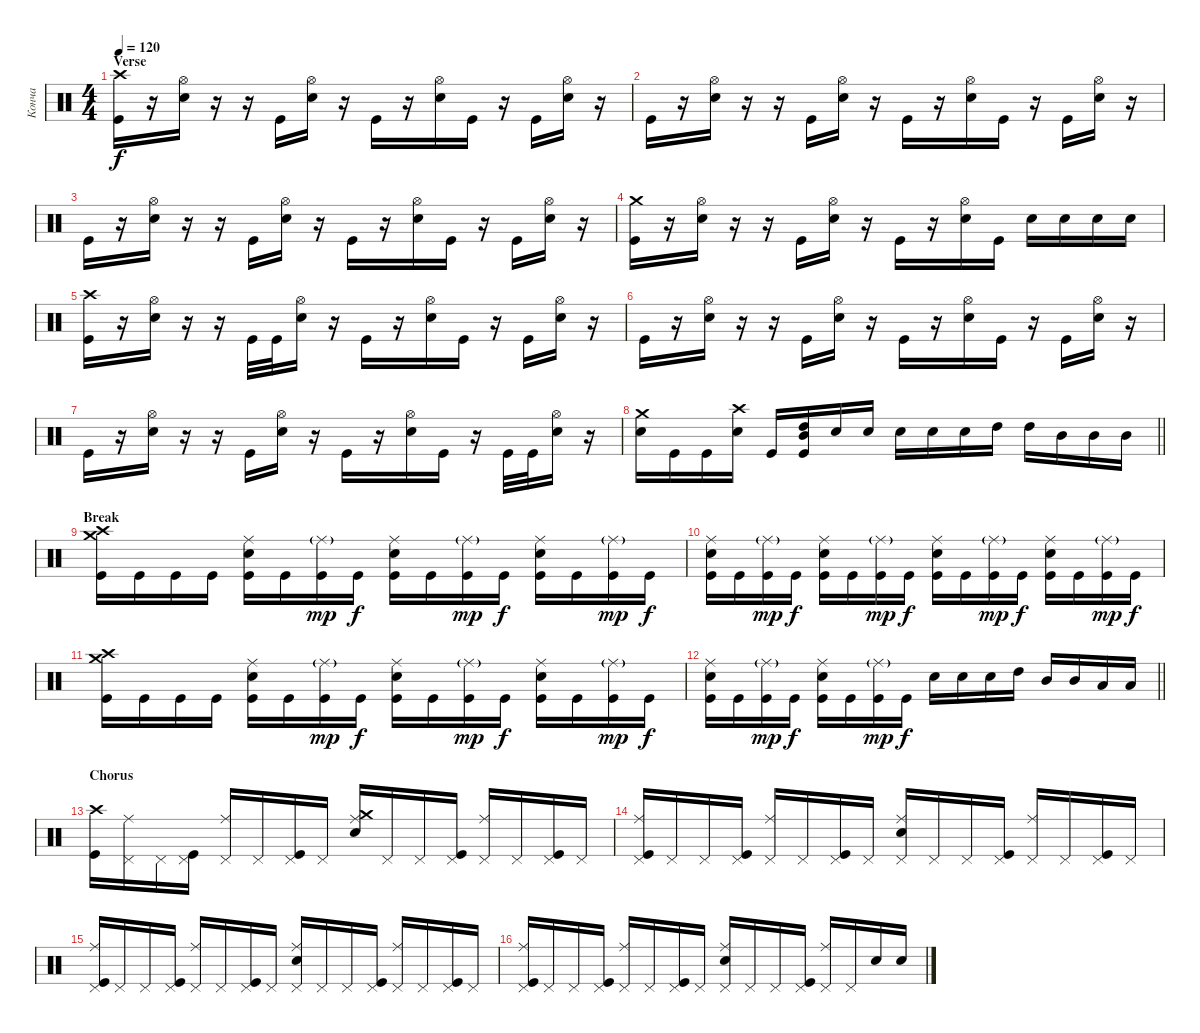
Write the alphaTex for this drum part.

\track ("Конча" "Конча") {instrument percussion}
\staff {score}
\articulation defaults
\ts (4 4)
\section ("" "Verse")
\tempo 120
\clef neutral
\ks c
("Kick (hit)" "Crash high (hit)").16{dy f} r.16 ("Hi-Hat (open)" "Electric Snare (hit)").16 r.16 r.16 "Kick (hit)".16 ("Hi-Hat (open)" "Electric Snare (hit)").16 r.16 "Kick (hit)".16 r.16 ("Hi-Hat (open)" "Electric Snare (hit)").16 "Kick (hit)".16 r.16 "Kick (hit)".16 ("Hi-Hat (open)" "Electric Snare (hit)").16 r.16 |
"Kick (hit)".16 r.16 ("Hi-Hat (open)" "Electric Snare (hit)").16 r.16 r.16 "Kick (hit)".16 ("Hi-Hat (open)" "Electric Snare (hit)").16 r.16 "Kick (hit)".16 r.16 ("Hi-Hat (open)" "Electric Snare (hit)").16 "Kick (hit)".16 r.16 "Kick (hit)".16 ("Hi-Hat (open)" "Electric Snare (hit)").16 r.16 |
"Kick (hit)".16 r.16 ("Hi-Hat (open)" "Electric Snare (hit)").16 r.16 r.16 "Kick (hit)".16 ("Hi-Hat (open)" "Electric Snare (hit)").16 r.16 "Kick (hit)".16 r.16 ("Hi-Hat (open)" "Electric Snare (hit)").16 "Kick (hit)".16 r.16 "Kick (hit)".16 ("Hi-Hat (open)" "Electric Snare (hit)").16 r.16 |
("Kick (hit)" "Crash medium (hit)").16 r.16 ("Hi-Hat (open)" "Electric Snare (hit)").16 r.16 r.16 "Kick (hit)".16 ("Hi-Hat (open)" "Electric Snare (hit)").16 r.16 "Kick (hit)".16 r.16 ("Hi-Hat (open)" "Electric Snare (hit)").16 "Kick (hit)".16 "Electric Snare (hit)".16 "Electric Snare (hit)".16 "Electric Snare (hit)".16 "Electric Snare (hit)".16 |
("Kick (hit)" "Crash high (hit)").16 r.16 ("Hi-Hat (open)" "Electric Snare (hit)").16 r.16 r.16 "Kick (hit)".32 "Kick (hit)".32 ("Hi-Hat (open)" "Electric Snare (hit)").16 r.16 "Kick (hit)".16 r.16 ("Hi-Hat (open)" "Electric Snare (hit)").16 "Kick (hit)".16 r.16 "Kick (hit)".16 ("Hi-Hat (open)" "Electric Snare (hit)").16 r.16 |
"Kick (hit)".16 r.16 ("Hi-Hat (open)" "Electric Snare (hit)").16 r.16 r.16 "Kick (hit)".16 ("Hi-Hat (open)" "Electric Snare (hit)").16 r.16 "Kick (hit)".16 r.16 ("Hi-Hat (open)" "Electric Snare (hit)").16 "Kick (hit)".16 r.16 "Kick (hit)".16 ("Hi-Hat (open)" "Electric Snare (hit)").16 r.16 |
"Kick (hit)".16 r.16 ("Hi-Hat (open)" "Electric Snare (hit)").16 r.16 r.16 "Kick (hit)".16 ("Hi-Hat (open)" "Electric Snare (hit)").16 r.16 "Kick (hit)".16 r.16 ("Hi-Hat (open)" "Electric Snare (hit)").16 "Kick (hit)".16 r.16 "Kick (hit)".32 "Kick (hit)".32 ("Hi-Hat (open)" "Electric Snare (hit)").16 r.16 |
\barLineRight lightlight
("Crash medium (hit)" "Electric Snare (hit)").16 "Kick (hit)".16 "Kick (hit)".16 ("Crash high (hit)" "Electric Snare (hit)").16 "Kick (hit)".16 ("High Tom (hit)" "Mid Tom (hit)" "Kick (hit)").16 "Electric Snare (hit)".16 "Electric Snare (hit)".16 "Electric Snare (hit)".16 "Electric Snare (hit)".16 "Electric Snare (hit)".16 "High Tom (hit)".16 "High Tom (hit)".16 "Mid Tom (hit)".16 "Mid Tom (hit)".16 "Mid Tom (hit)".16 |
\section ("" "Break")
("Crash medium (hit)" "Kick (hit)" "Crash high (hit)").16 "Kick (hit)".16 "Kick (hit)".16 "Kick (hit)".16 ("Electric Snare (hit)" "Ride (middle)" "Kick (hit)").16 "Kick (hit)".16 ("Ride (middle)"{g} "Kick (hit)").16{dy mp} "Kick (hit)".16{dy f} ("Electric Snare (hit)" "Ride (middle)" "Kick (hit)").16 "Kick (hit)".16 ("Ride (middle)"{g} "Kick (hit)").16{dy mp} "Kick (hit)".16{dy f} ("Electric Snare (hit)" "Ride (middle)" "Kick (hit)").16 "Kick (hit)".16 ("Ride (middle)"{g} "Kick (hit)").16{dy mp} "Kick (hit)".16{dy f} |
("Electric Snare (hit)" "Ride (middle)" "Kick (hit)").16 "Kick (hit)".16 ("Ride (middle)"{g} "Kick (hit)").16{dy mp} "Kick (hit)".16{dy f} ("Electric Snare (hit)" "Ride (middle)" "Kick (hit)").16 "Kick (hit)".16 ("Ride (middle)"{g} "Kick (hit)").16{dy mp} "Kick (hit)".16{dy f} ("Electric Snare (hit)" "Ride (middle)" "Kick (hit)").16 "Kick (hit)".16 ("Ride (middle)"{g} "Kick (hit)").16{dy mp} "Kick (hit)".16{dy f} ("Electric Snare (hit)" "Ride (middle)" "Kick (hit)").16 "Kick (hit)".16 ("Ride (middle)"{g} "Kick (hit)").16{dy mp} "Kick (hit)".16{dy f} |
("Crash medium (hit)" "Kick (hit)" "Crash high (hit)").16 "Kick (hit)".16 "Kick (hit)".16 "Kick (hit)".16 ("Electric Snare (hit)" "Ride (middle)" "Kick (hit)").16 "Kick (hit)".16 ("Ride (middle)"{g} "Kick (hit)").16{dy mp} "Kick (hit)".16{dy f} ("Electric Snare (hit)" "Ride (middle)" "Kick (hit)").16 "Kick (hit)".16 ("Ride (middle)"{g} "Kick (hit)").16{dy mp} "Kick (hit)".16{dy f} ("Electric Snare (hit)" "Ride (middle)" "Kick (hit)").16 "Kick (hit)".16 ("Ride (middle)"{g} "Kick (hit)").16{dy mp} "Kick (hit)".16{dy f} |
\barLineRight lightlight
("Electric Snare (hit)" "Ride (middle)" "Kick (hit)").16 "Kick (hit)".16 ("Ride (middle)"{g} "Kick (hit)").16{dy mp} "Kick (hit)".16{dy f} ("Electric Snare (hit)" "Ride (middle)" "Kick (hit)").16 "Kick (hit)".16 ("Ride (middle)"{g} "Kick (hit)").16{dy mp} "Kick (hit)".16{dy f} "Electric Snare (hit)".16 "Electric Snare (hit)".16 "Electric Snare (hit)".16 "High Tom (hit)".16 "Mid Tom (hit)".16 "Mid Tom (hit)".16 "Low Tom (hit)".16 "Low Tom (hit)".16 |
\section ("" "Chorus")
("Crash high (hit)" "Kick (hit)").16 ("Ride (middle)" "Pedal Hi-Hat (hit)").16 "Pedal Hi-Hat (hit)".16 ("Pedal Hi-Hat (hit)" "Kick (hit)").16 ("Ride (middle)" "Pedal Hi-Hat (hit)").16 "Pedal Hi-Hat (hit)".16 ("Pedal Hi-Hat (hit)" "Kick (hit)").16 "Pedal Hi-Hat (hit)".16 ("Ride (middle)" "Crash medium (hit)" "Electric Snare (hit)").16 "Pedal Hi-Hat (hit)".16 "Pedal Hi-Hat (hit)".16 ("Pedal Hi-Hat (hit)" "Kick (hit)").16 ("Ride (middle)" "Pedal Hi-Hat (hit)").16 "Pedal Hi-Hat (hit)".16 ("Pedal Hi-Hat (hit)" "Kick (hit)").16 "Pedal Hi-Hat (hit)".16 |
("Ride (middle)" "Pedal Hi-Hat (hit)" "Kick (hit)").16 "Pedal Hi-Hat (hit)".16 "Pedal Hi-Hat (hit)".16 ("Pedal Hi-Hat (hit)" "Kick (hit)").16 ("Ride (middle)" "Pedal Hi-Hat (hit)").16 "Pedal Hi-Hat (hit)".16 ("Pedal Hi-Hat (hit)" "Kick (hit)").16 "Pedal Hi-Hat (hit)".16 ("Ride (middle)" "Pedal Hi-Hat (hit)" "Electric Snare (hit)").16 "Pedal Hi-Hat (hit)".16 "Pedal Hi-Hat (hit)".16 ("Pedal Hi-Hat (hit)" "Kick (hit)").16 ("Ride (middle)" "Pedal Hi-Hat (hit)").16 "Pedal Hi-Hat (hit)".16 ("Pedal Hi-Hat (hit)" "Kick (hit)").16 "Pedal Hi-Hat (hit)".16 |
("Ride (middle)" "Pedal Hi-Hat (hit)" "Kick (hit)").16 "Pedal Hi-Hat (hit)".16 "Pedal Hi-Hat (hit)".16 ("Pedal Hi-Hat (hit)" "Kick (hit)").16 ("Ride (middle)" "Pedal Hi-Hat (hit)").16 "Pedal Hi-Hat (hit)".16 ("Pedal Hi-Hat (hit)" "Kick (hit)").16 "Pedal Hi-Hat (hit)".16 ("Ride (middle)" "Pedal Hi-Hat (hit)" "Electric Snare (hit)").16 "Pedal Hi-Hat (hit)".16 "Pedal Hi-Hat (hit)".16 ("Pedal Hi-Hat (hit)" "Kick (hit)").16 ("Ride (middle)" "Pedal Hi-Hat (hit)").16 "Pedal Hi-Hat (hit)".16 ("Pedal Hi-Hat (hit)" "Kick (hit)").16 "Pedal Hi-Hat (hit)".16 |
("Ride (middle)" "Pedal Hi-Hat (hit)" "Kick (hit)").16 "Pedal Hi-Hat (hit)".16 "Pedal Hi-Hat (hit)".16 ("Pedal Hi-Hat (hit)" "Kick (hit)").16 ("Ride (middle)" "Pedal Hi-Hat (hit)").16 "Pedal Hi-Hat (hit)".16 ("Pedal Hi-Hat (hit)" "Kick (hit)").16 "Pedal Hi-Hat (hit)".16 ("Ride (middle)" "Pedal Hi-Hat (hit)" "Electric Snare (hit)").16 "Pedal Hi-Hat (hit)".16 "Pedal Hi-Hat (hit)".16 ("Pedal Hi-Hat (hit)" "Kick (hit)").16 ("Ride (middle)" "Pedal Hi-Hat (hit)").16 "Pedal Hi-Hat (hit)".16 "Electric Snare (hit)".16 "Electric Snare (hit)".16
